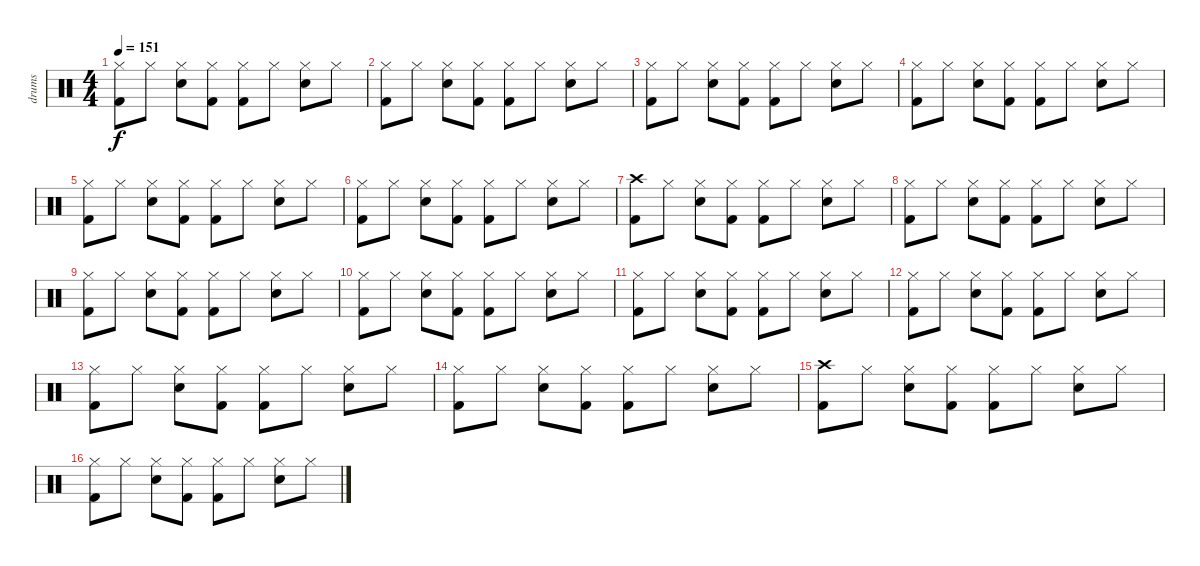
\track ("drums" "drums") {instrument percussion}
\staff {score}
\articulation defaults
\ts (4 4)
\tempo 151
\clef neutral
\ks c
("Hi-Hat (closed)" "Kick (hit) 2").8{dy f} "Hi-Hat (closed)".8 ("Hi-Hat (closed)" "Electric Snare (hit)").8 ("Hi-Hat (closed)" "Kick (hit) 2").8 ("Hi-Hat (closed)" "Kick (hit) 2").8 "Hi-Hat (closed)".8 ("Hi-Hat (closed)" "Electric Snare (hit)").8 "Hi-Hat (closed)".8 |
("Hi-Hat (closed)" "Kick (hit) 2").8 "Hi-Hat (closed)".8 ("Hi-Hat (closed)" "Electric Snare (hit)").8 ("Hi-Hat (closed)" "Kick (hit) 2").8 ("Hi-Hat (closed)" "Kick (hit) 2").8 "Hi-Hat (closed)".8 ("Hi-Hat (closed)" "Electric Snare (hit)").8 "Hi-Hat (closed)".8 |
("Hi-Hat (closed)" "Kick (hit) 2").8 "Hi-Hat (closed)".8 ("Hi-Hat (closed)" "Electric Snare (hit)").8 ("Hi-Hat (closed)" "Kick (hit) 2").8 ("Hi-Hat (closed)" "Kick (hit) 2").8 "Hi-Hat (closed)".8 ("Hi-Hat (closed)" "Electric Snare (hit)").8 "Hi-Hat (closed)".8 |
("Hi-Hat (closed)" "Kick (hit) 2").8 "Hi-Hat (closed)".8 ("Hi-Hat (closed)" "Electric Snare (hit)").8 ("Hi-Hat (closed)" "Kick (hit) 2").8 ("Hi-Hat (closed)" "Kick (hit) 2").8 "Hi-Hat (closed)".8 ("Hi-Hat (closed)" "Electric Snare (hit)").8 "Hi-Hat (closed)".8 |
("Hi-Hat (closed)" "Kick (hit) 2").8 "Hi-Hat (closed)".8 ("Hi-Hat (closed)" "Electric Snare (hit)").8 ("Hi-Hat (closed)" "Kick (hit) 2").8 ("Hi-Hat (closed)" "Kick (hit) 2").8 "Hi-Hat (closed)".8 ("Hi-Hat (closed)" "Electric Snare (hit)").8 "Hi-Hat (closed)".8 |
("Hi-Hat (closed)" "Kick (hit) 2").8 "Hi-Hat (closed)".8 ("Hi-Hat (closed)" "Electric Snare (hit)").8 ("Hi-Hat (closed)" "Kick (hit) 2").8 ("Hi-Hat (closed)" "Kick (hit) 2").8 "Hi-Hat (closed)".8 ("Hi-Hat (closed)" "Electric Snare (hit)").8 "Hi-Hat (closed)".8 |
("Crash high (hit)" "Kick (hit) 2").8 "Hi-Hat (closed)".8 ("Hi-Hat (closed)" "Electric Snare (hit)").8 ("Hi-Hat (closed)" "Kick (hit) 2").8 ("Hi-Hat (closed)" "Kick (hit) 2").8 "Hi-Hat (closed)".8 ("Hi-Hat (closed)" "Electric Snare (hit)").8 "Hi-Hat (closed)".8 |
("Hi-Hat (closed)" "Kick (hit) 2").8 "Hi-Hat (closed)".8 ("Hi-Hat (closed)" "Electric Snare (hit)").8 ("Hi-Hat (closed)" "Kick (hit) 2").8 ("Hi-Hat (closed)" "Kick (hit) 2").8 "Hi-Hat (closed)".8 ("Hi-Hat (closed)" "Electric Snare (hit)").8 "Hi-Hat (closed)".8 |
("Hi-Hat (closed)" "Kick (hit) 2").8 "Hi-Hat (closed)".8 ("Hi-Hat (closed)" "Electric Snare (hit)").8 ("Hi-Hat (closed)" "Kick (hit) 2").8 ("Hi-Hat (closed)" "Kick (hit) 2").8 "Hi-Hat (closed)".8 ("Hi-Hat (closed)" "Electric Snare (hit)").8 "Hi-Hat (closed)".8 |
("Hi-Hat (closed)" "Kick (hit) 2").8 "Hi-Hat (closed)".8 ("Hi-Hat (closed)" "Electric Snare (hit)").8 ("Hi-Hat (closed)" "Kick (hit) 2").8 ("Hi-Hat (closed)" "Kick (hit) 2").8 "Hi-Hat (closed)".8 ("Hi-Hat (closed)" "Electric Snare (hit)").8 "Hi-Hat (closed)".8 |
("Hi-Hat (closed)" "Kick (hit) 2").8 "Hi-Hat (closed)".8 ("Hi-Hat (closed)" "Electric Snare (hit)").8 ("Hi-Hat (closed)" "Kick (hit) 2").8 ("Hi-Hat (closed)" "Kick (hit) 2").8 "Hi-Hat (closed)".8 ("Hi-Hat (closed)" "Electric Snare (hit)").8 "Hi-Hat (closed)".8 |
("Hi-Hat (closed)" "Kick (hit) 2").8 "Hi-Hat (closed)".8 ("Hi-Hat (closed)" "Electric Snare (hit)").8 ("Hi-Hat (closed)" "Kick (hit) 2").8 ("Hi-Hat (closed)" "Kick (hit) 2").8 "Hi-Hat (closed)".8 ("Hi-Hat (closed)" "Electric Snare (hit)").8 "Hi-Hat (closed)".8 |
("Hi-Hat (closed)" "Kick (hit) 2").8 "Hi-Hat (closed)".8 ("Hi-Hat (closed)" "Electric Snare (hit)").8 ("Hi-Hat (closed)" "Kick (hit) 2").8 ("Hi-Hat (closed)" "Kick (hit) 2").8 "Hi-Hat (closed)".8 ("Hi-Hat (closed)" "Electric Snare (hit)").8 "Hi-Hat (closed)".8 |
("Hi-Hat (closed)" "Kick (hit) 2").8 "Hi-Hat (closed)".8 ("Hi-Hat (closed)" "Electric Snare (hit)").8 ("Hi-Hat (closed)" "Kick (hit) 2").8 ("Hi-Hat (closed)" "Kick (hit) 2").8 "Hi-Hat (closed)".8 ("Hi-Hat (closed)" "Electric Snare (hit)").8 "Hi-Hat (closed)".8 |
("Crash high (hit)" "Kick (hit) 2").8 "Hi-Hat (closed)".8 ("Hi-Hat (closed)" "Electric Snare (hit)").8 ("Hi-Hat (closed)" "Kick (hit) 2").8 ("Hi-Hat (closed)" "Kick (hit) 2").8 "Hi-Hat (closed)".8 ("Hi-Hat (closed)" "Electric Snare (hit)").8 "Hi-Hat (closed)".8 |
("Hi-Hat (closed)" "Kick (hit) 2").8 "Hi-Hat (closed)".8 ("Hi-Hat (closed)" "Electric Snare (hit)").8 ("Hi-Hat (closed)" "Kick (hit) 2").8 ("Hi-Hat (closed)" "Kick (hit) 2").8 "Hi-Hat (closed)".8 ("Hi-Hat (closed)" "Electric Snare (hit)").8 "Hi-Hat (closed)".8
